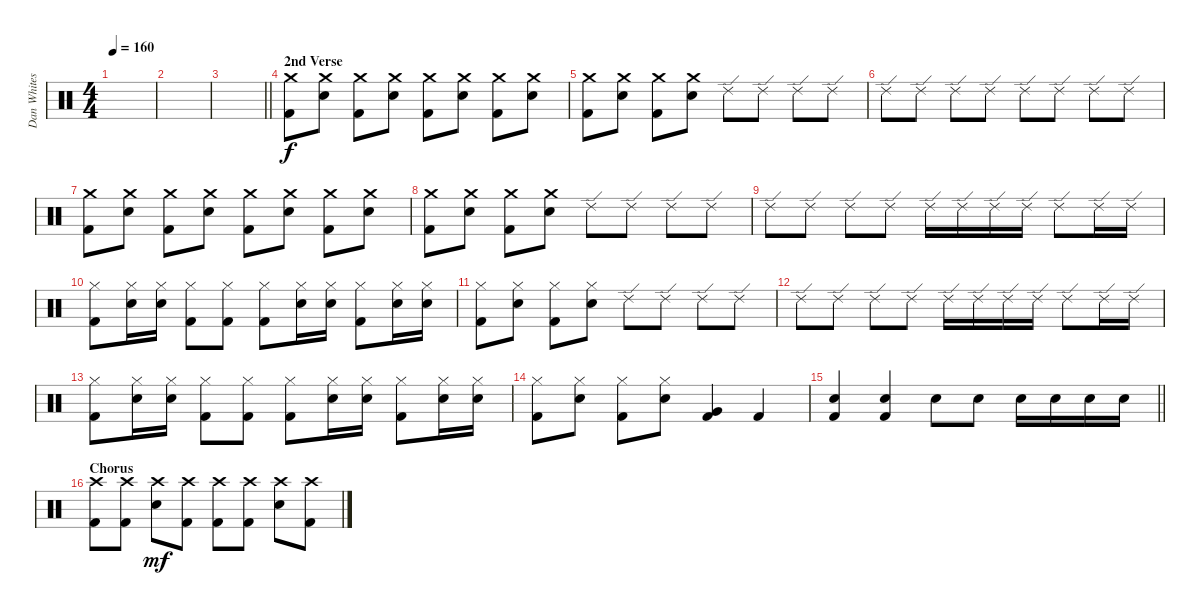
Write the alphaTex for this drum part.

\track ("Dan Whitesides" "Dan Whites") {instrument percussion}
\staff {score}
\articulation defaults
\ts (4 4)
\tempo 160
\clef neutral
\ks c
|
|
\barLineRight lightlight
|
\section ("" "2nd Verse")
("Crash medium (hit)" "Kick (hit) 2").8 ("Crash medium (hit)" "Snare (hit) 2").8 ("Crash medium (hit)" "Kick (hit) 2").8 ("Crash medium (hit)" "Snare (hit) 2").8 ("Crash medium (hit)" "Kick (hit) 2").8 ("Crash medium (hit)" "Snare (hit) 2").8 ("Crash medium (hit)" "Kick (hit) 2").8 ("Crash medium (hit)" "Snare (hit) 2").8 |
("Crash medium (hit)" "Kick (hit) 2").8 ("Crash medium (hit)" "Snare (hit) 2").8 ("Crash medium (hit)" "Kick (hit) 2").8 ("Crash medium (hit)" "Snare (hit) 2").8 "Ride (edge) 2".8 "Ride (edge) 2".8 "Ride (edge) 2".8 "Ride (edge) 2".8 |
"Ride (edge) 2".8 "Ride (edge) 2".8 "Ride (edge) 2".8 "Ride (edge) 2".8 "Ride (edge) 2".8 "Ride (edge) 2".8 "Ride (edge) 2".8 "Ride (edge) 2".8 |
("Crash medium (hit)" "Kick (hit) 2").8 ("Crash medium (hit)" "Snare (hit) 2").8 ("Crash medium (hit)" "Kick (hit) 2").8 ("Crash medium (hit)" "Snare (hit) 2").8 ("Crash medium (hit)" "Kick (hit) 2").8 ("Crash medium (hit)" "Snare (hit) 2").8 ("Crash medium (hit)" "Kick (hit) 2").8 ("Crash medium (hit)" "Snare (hit) 2").8 |
("Crash medium (hit)" "Kick (hit) 2").8 ("Crash medium (hit)" "Snare (hit) 2").8 ("Crash medium (hit)" "Kick (hit) 2").8 ("Crash medium (hit)" "Snare (hit) 2").8 "Ride (edge) 2".8 "Ride (edge) 2".8 "Ride (edge) 2".8 "Ride (edge) 2".8 |
"Ride (edge) 2".8 "Ride (edge) 2".8 "Ride (edge) 2".8 "Ride (edge) 2".8 "Ride (edge) 2".16 "Ride (edge) 2".16 "Ride (edge) 2".16 "Ride (edge) 2".16 "Ride (edge) 2".8 "Ride (edge) 2".16 "Ride (edge) 2".16 |
("Hi-Hat (closed)" "Kick (hit) 2").8 ("Hi-Hat (closed)" "Snare (hit) 2").16 ("Hi-Hat (closed)" "Snare (hit) 2").16 ("Hi-Hat (closed)" "Kick (hit) 2").8 ("Hi-Hat (closed)" "Kick (hit) 2").8 ("Hi-Hat (closed)" "Kick (hit) 2").8 ("Hi-Hat (closed)" "Snare (hit) 2").16 ("Hi-Hat (closed)" "Snare (hit) 2").16 ("Hi-Hat (closed)" "Kick (hit) 2").8 ("Hi-Hat (closed)" "Snare (hit) 2").16 ("Hi-Hat (closed)" "Snare (hit) 2").16 |
("Hi-Hat (closed)" "Kick (hit) 2").8 ("Hi-Hat (closed)" "Snare (hit) 2").8 ("Hi-Hat (closed)" "Kick (hit) 2").8 ("Hi-Hat (closed)" "Snare (hit) 2").8 "Ride (edge) 2".8 "Ride (edge) 2".8 "Ride (edge) 2".8 "Ride (edge) 2".8 |
"Ride (edge) 2".8 "Ride (edge) 2".8 "Ride (edge) 2".8 "Ride (edge) 2".8 "Ride (edge) 2".16 "Ride (edge) 2".16 "Ride (edge) 2".16 "Ride (edge) 2".16 "Ride (edge) 2".8 "Ride (edge) 2".16 "Ride (edge) 2".16 |
("Hi-Hat (closed)" "Kick (hit) 2").8 ("Hi-Hat (closed)" "Snare (hit) 2").16 ("Hi-Hat (closed)" "Snare (hit) 2").16 ("Hi-Hat (closed)" "Kick (hit) 2").8 ("Hi-Hat (closed)" "Kick (hit) 2").8 ("Hi-Hat (closed)" "Kick (hit) 2").8 ("Hi-Hat (closed)" "Snare (hit) 2").16 ("Hi-Hat (closed)" "Snare (hit) 2").16 ("Hi-Hat (closed)" "Kick (hit) 2").8 ("Hi-Hat (closed)" "Snare (hit) 2").16 ("Hi-Hat (closed)" "Snare (hit) 2").16 |
("Hi-Hat (closed)" "Kick (hit) 2").8 ("Hi-Hat (closed)" "Snare (hit) 2").8 ("Hi-Hat (closed)" "Kick (hit) 2").8 ("Hi-Hat (closed)" "Snare (hit) 2").8 ("Very Low Tom (hit)" "Kick (hit) 2").4 "Kick (hit) 2".4 |
\barLineRight lightlight
("Snare (hit) 2" "Kick (hit) 2").4 ("Snare (hit) 2" "Kick (hit) 2").4 "Snare (hit) 2".8 "Snare (hit) 2".8 "Snare (hit) 2".16 "Snare (hit) 2".16 "Snare (hit) 2".16 "Snare (hit) 2".16 |
\section ("" "Chorus")
("Crash high (hit)" "Kick (hit) 2").8{dy f} ("Crash high (hit)" "Kick (hit) 2").8 ("Crash high (hit)" "Snare (hit) 2").8{dy mf} ("Crash high (hit)" "Kick (hit) 2").8 ("Crash high (hit)" "Kick (hit) 2").8 ("Crash high (hit)" "Kick (hit) 2").8 ("Crash high (hit)" "Snare (hit) 2").8 ("Crash high (hit)" "Kick (hit) 2").8
